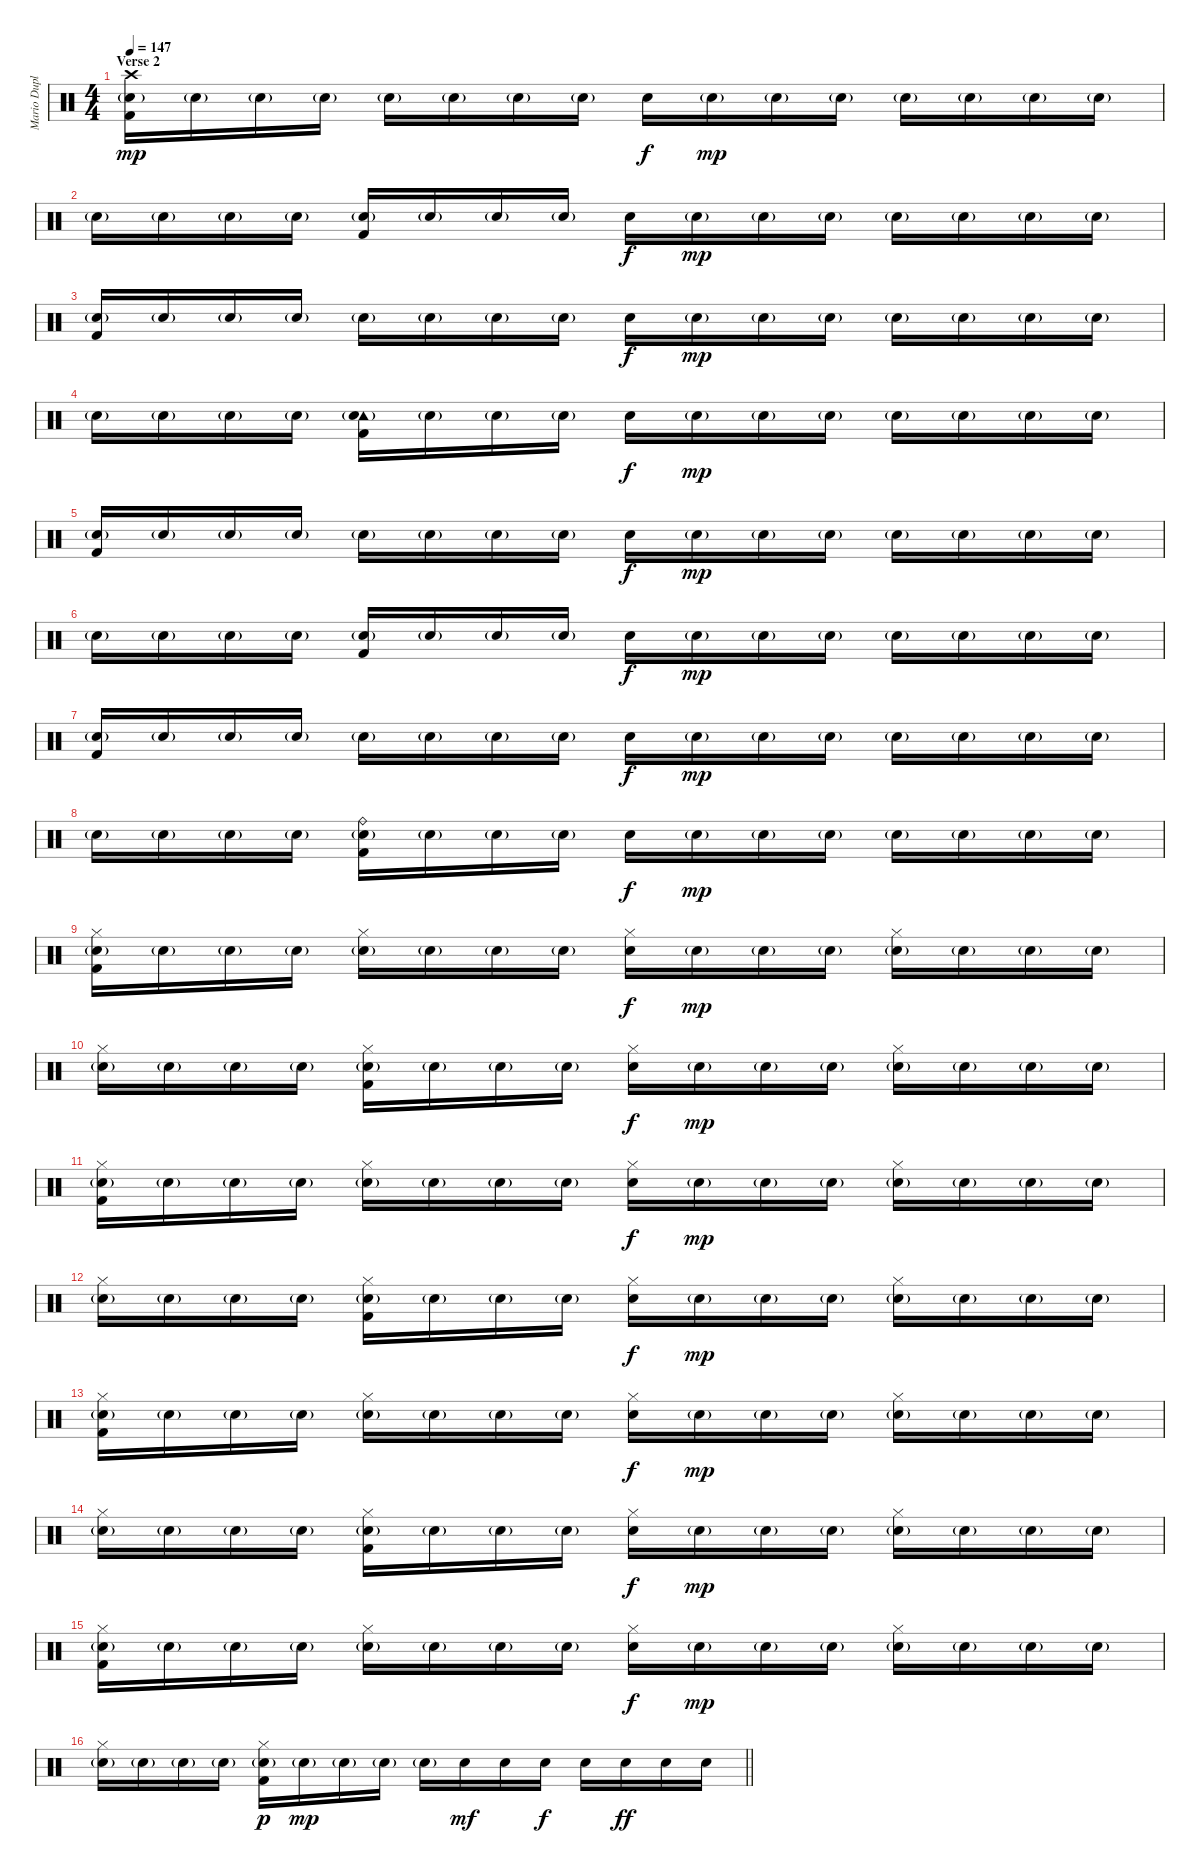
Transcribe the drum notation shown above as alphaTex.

\track ("Mario Duplantier - DRUMS" "Mario Dupl") {instrument percussion}
\staff {score}
\articulation defaults
\ts (4 4)
\section ("" "Verse 2")
\tempo 147
\clef neutral
\ks c
("Crash high (hit)" "Electric Snare (hit)"{g} "Kick (hit) 2").16{dy mp} "Electric Snare (hit)"{g}.16 "Electric Snare (hit)"{g}.16 "Electric Snare (hit)"{g}.16 "Electric Snare (hit)"{g}.16 "Electric Snare (hit)"{g}.16 "Electric Snare (hit)"{g}.16 "Electric Snare (hit)"{g}.16 "Electric Snare (hit)".16{dy f} "Electric Snare (hit)"{g}.16{dy mp} "Electric Snare (hit)"{g}.16 "Electric Snare (hit)"{g}.16 "Electric Snare (hit)"{g}.16 "Electric Snare (hit)"{g}.16 "Electric Snare (hit)"{g}.16 "Electric Snare (hit)"{g}.16 |
"Electric Snare (hit)"{g}.16 "Electric Snare (hit)"{g}.16 "Electric Snare (hit)"{g}.16 "Electric Snare (hit)"{g}.16 ("Electric Snare (hit)"{g} "Kick (hit) 2").16 "Electric Snare (hit)"{g}.16 "Electric Snare (hit)"{g}.16 "Electric Snare (hit)"{g}.16 "Electric Snare (hit)".16{dy f} "Electric Snare (hit)"{g}.16{dy mp} "Electric Snare (hit)"{g}.16 "Electric Snare (hit)"{g}.16 "Electric Snare (hit)"{g}.16 "Electric Snare (hit)"{g}.16 "Electric Snare (hit)"{g}.16 "Electric Snare (hit)"{g}.16 |
("Electric Snare (hit)"{g} "Kick (hit) 2").16 "Electric Snare (hit)"{g}.16 "Electric Snare (hit)"{g}.16 "Electric Snare (hit)"{g}.16 "Electric Snare (hit)"{g}.16 "Electric Snare (hit)"{g}.16 "Electric Snare (hit)"{g}.16 "Electric Snare (hit)"{g}.16 "Electric Snare (hit)".16{dy f} "Electric Snare (hit)"{g}.16{dy mp} "Electric Snare (hit)"{g}.16 "Electric Snare (hit)"{g}.16 "Electric Snare (hit)"{g}.16 "Electric Snare (hit)"{g}.16 "Electric Snare (hit)"{g}.16 "Electric Snare (hit)"{g}.16 |
"Electric Snare (hit)"{g}.16 "Electric Snare (hit)"{g}.16 "Electric Snare (hit)"{g}.16 "Electric Snare (hit)"{g}.16 ("Tambourine (hit)" "Electric Snare (hit)"{g} "Kick (hit) 2").16 "Electric Snare (hit)"{g}.16 "Electric Snare (hit)"{g}.16 "Electric Snare (hit)"{g}.16 "Electric Snare (hit)".16{dy f} "Electric Snare (hit)"{g}.16{dy mp} "Electric Snare (hit)"{g}.16 "Electric Snare (hit)"{g}.16 "Electric Snare (hit)"{g}.16 "Electric Snare (hit)"{g}.16 "Electric Snare (hit)"{g}.16 "Electric Snare (hit)"{g}.16 |
("Electric Snare (hit)"{g} "Kick (hit) 2").16 "Electric Snare (hit)"{g}.16 "Electric Snare (hit)"{g}.16 "Electric Snare (hit)"{g}.16 "Electric Snare (hit)"{g}.16 "Electric Snare (hit)"{g}.16 "Electric Snare (hit)"{g}.16 "Electric Snare (hit)"{g}.16 "Electric Snare (hit)".16{dy f} "Electric Snare (hit)"{g}.16{dy mp} "Electric Snare (hit)"{g}.16 "Electric Snare (hit)"{g}.16 "Electric Snare (hit)"{g}.16 "Electric Snare (hit)"{g}.16 "Electric Snare (hit)"{g}.16 "Electric Snare (hit)"{g}.16 |
"Electric Snare (hit)"{g}.16 "Electric Snare (hit)"{g}.16 "Electric Snare (hit)"{g}.16 "Electric Snare (hit)"{g}.16 ("Electric Snare (hit)"{g} "Kick (hit) 2").16 "Electric Snare (hit)"{g}.16 "Electric Snare (hit)"{g}.16 "Electric Snare (hit)"{g}.16 "Electric Snare (hit)".16{dy f} "Electric Snare (hit)"{g}.16{dy mp} "Electric Snare (hit)"{g}.16 "Electric Snare (hit)"{g}.16 "Electric Snare (hit)"{g}.16 "Electric Snare (hit)"{g}.16 "Electric Snare (hit)"{g}.16 "Electric Snare (hit)"{g}.16 |
("Electric Snare (hit)"{g} "Kick (hit) 2").16 "Electric Snare (hit)"{g}.16 "Electric Snare (hit)"{g}.16 "Electric Snare (hit)"{g}.16 "Electric Snare (hit)"{g}.16 "Electric Snare (hit)"{g}.16 "Electric Snare (hit)"{g}.16 "Electric Snare (hit)"{g}.16 "Electric Snare (hit)".16{dy f} "Electric Snare (hit)"{g}.16{dy mp} "Electric Snare (hit)"{g}.16 "Electric Snare (hit)"{g}.16 "Electric Snare (hit)"{g}.16 "Electric Snare (hit)"{g}.16 "Electric Snare (hit)"{g}.16 "Electric Snare (hit)"{g}.16 |
"Electric Snare (hit)"{g}.16 "Electric Snare (hit)"{g}.16 "Electric Snare (hit)"{g}.16 "Electric Snare (hit)"{g}.16 ("Ride (bell)" "Electric Snare (hit)"{g} "Kick (hit) 2").16 "Electric Snare (hit)"{g}.16 "Electric Snare (hit)"{g}.16 "Electric Snare (hit)"{g}.16 "Electric Snare (hit)".16{dy f} "Electric Snare (hit)"{g}.16{dy mp} "Electric Snare (hit)"{g}.16 "Electric Snare (hit)"{g}.16 "Electric Snare (hit)"{g}.16 "Electric Snare (hit)"{g}.16 "Electric Snare (hit)"{g}.16 "Electric Snare (hit)"{g}.16 |
("Hi-Hat (closed)" "Electric Snare (hit)"{g} "Kick (hit) 2").16 "Electric Snare (hit)"{g}.16 "Electric Snare (hit)"{g}.16 "Electric Snare (hit)"{g}.16 ("Hi-Hat (closed)" "Electric Snare (hit)"{g}).16 "Electric Snare (hit)"{g}.16 "Electric Snare (hit)"{g}.16 "Electric Snare (hit)"{g}.16 ("Hi-Hat (closed)" "Electric Snare (hit)").16{dy f} "Electric Snare (hit)"{g}.16{dy mp} "Electric Snare (hit)"{g}.16 "Electric Snare (hit)"{g}.16 ("Hi-Hat (closed)" "Electric Snare (hit)"{g}).16 "Electric Snare (hit)"{g}.16 "Electric Snare (hit)"{g}.16 "Electric Snare (hit)"{g}.16 |
("Hi-Hat (closed)" "Electric Snare (hit)"{g}).16 "Electric Snare (hit)"{g}.16 "Electric Snare (hit)"{g}.16 "Electric Snare (hit)"{g}.16 ("Hi-Hat (closed)" "Electric Snare (hit)"{g} "Kick (hit) 2").16 "Electric Snare (hit)"{g}.16 "Electric Snare (hit)"{g}.16 "Electric Snare (hit)"{g}.16 ("Hi-Hat (closed)" "Electric Snare (hit)").16{dy f} "Electric Snare (hit)"{g}.16{dy mp} "Electric Snare (hit)"{g}.16 "Electric Snare (hit)"{g}.16 ("Hi-Hat (closed)" "Electric Snare (hit)"{g}).16 "Electric Snare (hit)"{g}.16 "Electric Snare (hit)"{g}.16 "Electric Snare (hit)"{g}.16 |
("Hi-Hat (closed)" "Electric Snare (hit)"{g} "Kick (hit) 2").16 "Electric Snare (hit)"{g}.16 "Electric Snare (hit)"{g}.16 "Electric Snare (hit)"{g}.16 ("Hi-Hat (closed)" "Electric Snare (hit)"{g}).16 "Electric Snare (hit)"{g}.16 "Electric Snare (hit)"{g}.16 "Electric Snare (hit)"{g}.16 ("Hi-Hat (closed)" "Electric Snare (hit)").16{dy f} "Electric Snare (hit)"{g}.16{dy mp} "Electric Snare (hit)"{g}.16 "Electric Snare (hit)"{g}.16 ("Hi-Hat (closed)" "Electric Snare (hit)"{g}).16 "Electric Snare (hit)"{g}.16 "Electric Snare (hit)"{g}.16 "Electric Snare (hit)"{g}.16 |
("Hi-Hat (closed)" "Electric Snare (hit)"{g}).16 "Electric Snare (hit)"{g}.16 "Electric Snare (hit)"{g}.16 "Electric Snare (hit)"{g}.16 ("Hi-Hat (closed)" "Electric Snare (hit)"{g} "Kick (hit) 2").16 "Electric Snare (hit)"{g}.16 "Electric Snare (hit)"{g}.16 "Electric Snare (hit)"{g}.16 ("Hi-Hat (closed)" "Electric Snare (hit)").16{dy f} "Electric Snare (hit)"{g}.16{dy mp} "Electric Snare (hit)"{g}.16 "Electric Snare (hit)"{g}.16 ("Hi-Hat (closed)" "Electric Snare (hit)"{g}).16 "Electric Snare (hit)"{g}.16 "Electric Snare (hit)"{g}.16 "Electric Snare (hit)"{g}.16 |
("Hi-Hat (closed)" "Electric Snare (hit)"{g} "Kick (hit) 2").16 "Electric Snare (hit)"{g}.16 "Electric Snare (hit)"{g}.16 "Electric Snare (hit)"{g}.16 ("Hi-Hat (closed)" "Electric Snare (hit)"{g}).16 "Electric Snare (hit)"{g}.16 "Electric Snare (hit)"{g}.16 "Electric Snare (hit)"{g}.16 ("Hi-Hat (closed)" "Electric Snare (hit)").16{dy f} "Electric Snare (hit)"{g}.16{dy mp} "Electric Snare (hit)"{g}.16 "Electric Snare (hit)"{g}.16 ("Hi-Hat (closed)" "Electric Snare (hit)"{g}).16 "Electric Snare (hit)"{g}.16 "Electric Snare (hit)"{g}.16 "Electric Snare (hit)"{g}.16 |
("Hi-Hat (closed)" "Electric Snare (hit)"{g}).16 "Electric Snare (hit)"{g}.16 "Electric Snare (hit)"{g}.16 "Electric Snare (hit)"{g}.16 ("Hi-Hat (closed)" "Electric Snare (hit)"{g} "Kick (hit) 2").16 "Electric Snare (hit)"{g}.16 "Electric Snare (hit)"{g}.16 "Electric Snare (hit)"{g}.16 ("Hi-Hat (closed)" "Electric Snare (hit)").16{dy f} "Electric Snare (hit)"{g}.16{dy mp} "Electric Snare (hit)"{g}.16 "Electric Snare (hit)"{g}.16 ("Hi-Hat (closed)" "Electric Snare (hit)"{g}).16 "Electric Snare (hit)"{g}.16 "Electric Snare (hit)"{g}.16 "Electric Snare (hit)"{g}.16 |
("Hi-Hat (closed)" "Electric Snare (hit)"{g} "Kick (hit) 2").16 "Electric Snare (hit)"{g}.16 "Electric Snare (hit)"{g}.16 "Electric Snare (hit)"{g}.16 ("Hi-Hat (closed)" "Electric Snare (hit)"{g}).16 "Electric Snare (hit)"{g}.16 "Electric Snare (hit)"{g}.16 "Electric Snare (hit)"{g}.16 ("Hi-Hat (closed)" "Electric Snare (hit)").16{dy f} "Electric Snare (hit)"{g}.16{dy mp} "Electric Snare (hit)"{g}.16 "Electric Snare (hit)"{g}.16 ("Hi-Hat (closed)" "Electric Snare (hit)"{g}).16 "Electric Snare (hit)"{g}.16 "Electric Snare (hit)"{g}.16 "Electric Snare (hit)"{g}.16 |
\barLineRight lightlight
("Hi-Hat (closed)" "Electric Snare (hit)"{g}).16 "Electric Snare (hit)"{g}.16 "Electric Snare (hit)"{g}.16 "Electric Snare (hit)"{g}.16 ("Hi-Hat (closed)" "Electric Snare (hit)"{g} "Kick (hit) 2").16{dy p} "Electric Snare (hit)"{g}.16{dy mp} "Electric Snare (hit)"{g}.16 "Electric Snare (hit)"{g}.16 "Electric Snare (hit)"{g}.16 "Electric Snare (hit)".16{dy mf} "Electric Snare (hit)".16 "Electric Snare (hit)".16{dy f} "Electric Snare (hit)".16 "Electric Snare (hit)".16{dy ff} "Electric Snare (hit)".16 "Electric Snare (hit)".16
